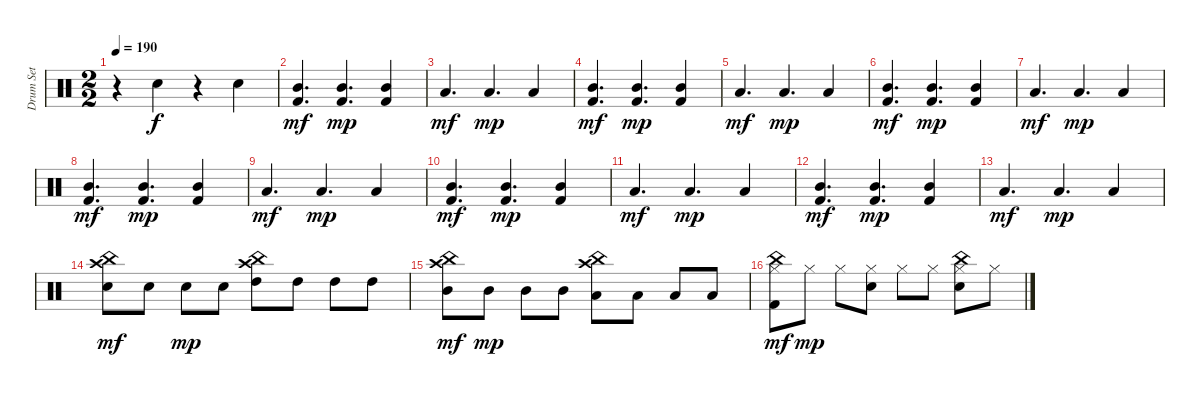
\track ("Drum Set" "Drum Set") {instrument percussion}
\staff {score}
\articulation defaults
\ts (2 2)
\tempo 190
\clef neutral
\ks c
r.4{dy f} "Hand Clap (hit)".4 r.4 "Hand Clap (hit)".4 |
("Mid Tom (hit)" "Kick (hit) 2").4{d dy mf} ("Mid Tom (hit)" "Kick (hit) 2").4{d dy mp} ("Kick (hit) 2" "Mid Tom (hit)").4 |
"Low Tom (hit)".4{d dy mf} "Low Tom (hit)".4{d dy mp} "Low Tom (hit)".4 |
("Mid Tom (hit)" "Kick (hit) 2").4{d dy mf} ("Kick (hit) 2" "Mid Tom (hit)").4{d dy mp} ("Kick (hit) 2" "Mid Tom (hit)").4 |
"Low Tom (hit)".4{d dy mf} "Low Tom (hit)".4{d dy mp} "Low Tom (hit)".4 |
("Kick (hit) 2" "Mid Tom (hit)").4{d dy mf} ("Mid Tom (hit)" "Kick (hit) 2").4{d dy mp} ("Kick (hit) 2" "Mid Tom (hit)").4 |
"Low Tom (hit)".4{d dy mf} "Low Tom (hit)".4{d dy mp} "Low Tom (hit)".4 |
("Kick (hit) 2" "Mid Tom (hit)").4{d dy mf} ("Kick (hit) 2" "Mid Tom (hit)").4{d dy mp} ("Kick (hit) 2" "Mid Tom (hit)").4 |
"Low Tom (hit)".4{d dy mf} "Low Tom (hit)".4{d dy mp} "Low Tom (hit)".4 |
("Mid Tom (hit)" "Kick (hit) 2").4{d dy mf} ("Mid Tom (hit)" "Kick (hit) 2").4{d dy mp} ("Kick (hit) 2" "Mid Tom (hit)").4 |
"Low Tom (hit)".4{d dy mf} "Low Tom (hit)".4{d dy mp} "Low Tom (hit)".4 |
("Mid Tom (hit)" "Kick (hit) 2").4{d dy mf} ("Kick (hit) 2" "Mid Tom (hit)").4{d dy mp} ("Kick (hit) 2" "Mid Tom (hit)").4 |
"Low Tom (hit)".4{d dy mf} "Low Tom (hit)".4{d dy mp} "Low Tom (hit)".4 |
("Crash high (hit)" "China (hit)" "Snare (hit) 2").8{dy mf} "Snare (hit) 2".8 "Snare (hit) 2".8{dy mp} "Snare (hit) 2".8 ("High Tom (hit)" "Crash high (hit)" "China (hit)").8 "High Tom (hit)".8 "High Tom (hit)".8 "High Tom (hit)".8 |
("Crash high (hit)" "Mid Tom (hit)" "China (hit)").8{dy mf} "Mid Tom (hit)".8{dy mp} "Mid Tom (hit)".8 "Mid Tom (hit)".8 ("Crash high (hit)" "Low Tom (hit)" "China (hit)").8 "Low Tom (hit)".8 "Low Tom (hit)".8 "Low Tom (hit)".8 |
("Kick (hit) 2" "Hi-Hat (closed)" "China (hit)").8{dy mf} "Hi-Hat (closed)".8{dy mp} "Hi-Hat (closed)".8 ("Snare (hit) 2" "Hi-Hat (closed)").8 "Hi-Hat (closed)".8 "Hi-Hat (closed)".8 ("Snare (hit) 2" "China (hit)" "Hi-Hat (closed)").8 "Hi-Hat (closed)".8
